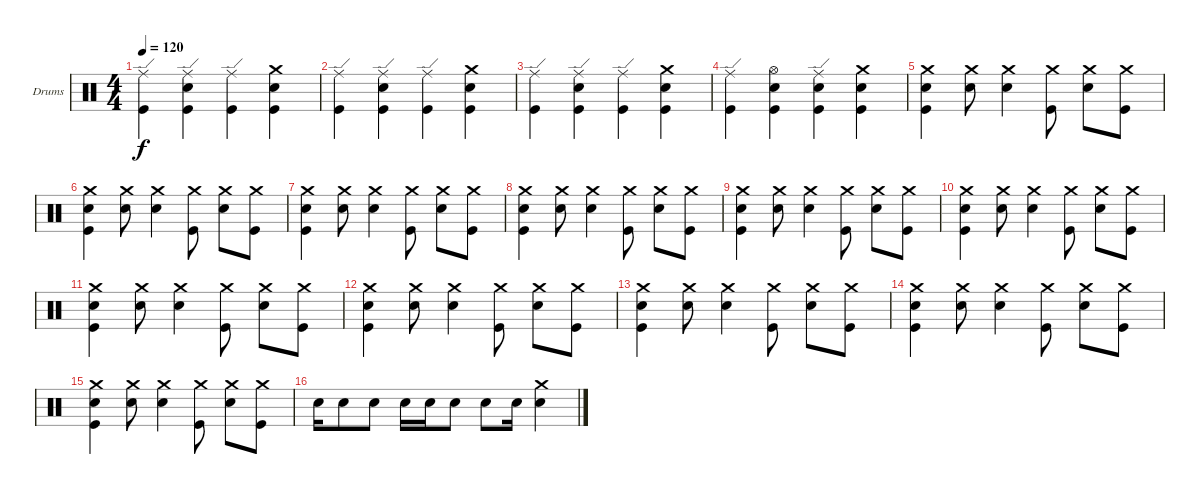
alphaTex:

\bracketExtendMode groupsimilarinstruments
\firstSystemTrackNameOrientation horizontal
\otherSystemsTrackNameOrientation horizontal
\track ("Drumkit" "Drums") {instrument percussion}
\staff {score}
\articulation defaults
\ts (4 4)
\tempo 120
\clef neutral
\ks c
("Ride (edge)" "Kick (hit)").4{dy f} ("Ride (edge)" "Snare (hit) 2" "Kick (hit)").4 ("Ride (edge)" "Kick (hit)").4 ("Crash medium (hit)" "Snare (hit) 2" "Kick (hit)").4 |
("Ride (edge)" "Kick (hit)").4 ("Ride (edge)" "Snare (hit) 2" "Kick (hit)").4 ("Ride (edge)" "Kick (hit)").4 ("Crash medium (hit)" "Snare (hit) 2" "Kick (hit)").4 |
("Ride (edge)" "Kick (hit)").4 ("Ride (edge)" "Snare (hit) 2" "Kick (hit)").4 ("Ride (edge)" "Kick (hit)").4 ("Crash medium (hit)" "Snare (hit) 2" "Kick (hit)").4 |
("Ride (edge)" "Kick (hit)").4 ("Hi-Hat (open)" "Snare (hit) 2" "Kick (hit)").4 ("Ride (edge)" "Snare (hit) 2" "Kick (hit)").4 ("Crash medium (hit)" "Snare (hit) 2" "Kick (hit)").4 |
("Crash medium (hit)" "Snare (hit) 2" "Kick (hit)").4 ("Crash medium (hit)" "Snare (hit) 2").8 ("Crash medium (hit)" "Snare (hit) 2").4 ("Crash medium (hit)" "Kick (hit)").8 ("Crash medium (hit)" "Snare (hit) 2").8 ("Crash medium (hit)" "Kick (hit)").8 |
("Crash medium (hit)" "Snare (hit) 2" "Kick (hit)").4 ("Crash medium (hit)" "Snare (hit) 2").8 ("Crash medium (hit)" "Snare (hit) 2").4 ("Crash medium (hit)" "Kick (hit)").8 ("Crash medium (hit)" "Snare (hit) 2").8 ("Crash medium (hit)" "Kick (hit)").8 |
("Crash medium (hit)" "Snare (hit) 2" "Kick (hit)").4 ("Crash medium (hit)" "Snare (hit) 2").8 ("Crash medium (hit)" "Snare (hit) 2").4 ("Crash medium (hit)" "Kick (hit)").8 ("Crash medium (hit)" "Snare (hit) 2").8 ("Crash medium (hit)" "Kick (hit)").8 |
("Crash medium (hit)" "Snare (hit) 2" "Kick (hit)").4 ("Crash medium (hit)" "Snare (hit) 2").8 ("Crash medium (hit)" "Snare (hit) 2").4 ("Crash medium (hit)" "Kick (hit)").8 ("Crash medium (hit)" "Snare (hit) 2").8 ("Crash medium (hit)" "Kick (hit)").8 |
("Crash medium (hit)" "Snare (hit) 2" "Kick (hit)").4 ("Crash medium (hit)" "Snare (hit) 2").8 ("Crash medium (hit)" "Snare (hit) 2").4 ("Crash medium (hit)" "Kick (hit)").8 ("Crash medium (hit)" "Snare (hit) 2").8 ("Crash medium (hit)" "Kick (hit)").8 |
("Crash medium (hit)" "Snare (hit) 2" "Kick (hit)").4 ("Crash medium (hit)" "Snare (hit) 2").8 ("Crash medium (hit)" "Snare (hit) 2").4 ("Crash medium (hit)" "Kick (hit)").8 ("Crash medium (hit)" "Snare (hit) 2").8 ("Crash medium (hit)" "Kick (hit)").8 |
("Crash medium (hit)" "Snare (hit) 2" "Kick (hit)").4 ("Crash medium (hit)" "Snare (hit) 2").8 ("Crash medium (hit)" "Snare (hit) 2").4 ("Crash medium (hit)" "Kick (hit)").8 ("Crash medium (hit)" "Snare (hit) 2").8 ("Crash medium (hit)" "Kick (hit)").8 |
("Crash medium (hit)" "Snare (hit) 2" "Kick (hit)").4 ("Crash medium (hit)" "Snare (hit) 2").8 ("Crash medium (hit)" "Snare (hit) 2").4 ("Crash medium (hit)" "Kick (hit)").8 ("Crash medium (hit)" "Snare (hit) 2").8 ("Crash medium (hit)" "Kick (hit)").8 |
("Crash medium (hit)" "Snare (hit) 2" "Kick (hit)").4 ("Crash medium (hit)" "Snare (hit) 2").8 ("Crash medium (hit)" "Snare (hit) 2").4 ("Crash medium (hit)" "Kick (hit)").8 ("Crash medium (hit)" "Snare (hit) 2").8 ("Crash medium (hit)" "Kick (hit)").8 |
("Crash medium (hit)" "Snare (hit) 2" "Kick (hit)").4 ("Crash medium (hit)" "Snare (hit) 2").8 ("Crash medium (hit)" "Snare (hit) 2").4 ("Crash medium (hit)" "Kick (hit)").8 ("Crash medium (hit)" "Snare (hit) 2").8 ("Crash medium (hit)" "Kick (hit)").8 |
("Crash medium (hit)" "Snare (hit) 2" "Kick (hit)").4 ("Crash medium (hit)" "Snare (hit) 2").8 ("Crash medium (hit)" "Snare (hit) 2").4 ("Crash medium (hit)" "Kick (hit)").8 ("Crash medium (hit)" "Snare (hit) 2").8 ("Crash medium (hit)" "Kick (hit)").8 |
"Snare (hit) 2".16 "Snare (hit) 2".8 "Snare (hit) 2".8 "Snare (hit) 2".16 "Snare (hit) 2".16 "Snare (hit) 2".8 "Snare (hit) 2".8 "Snare (hit) 2".16 ("Crash medium (hit)" "Snare (hit) 2").4
